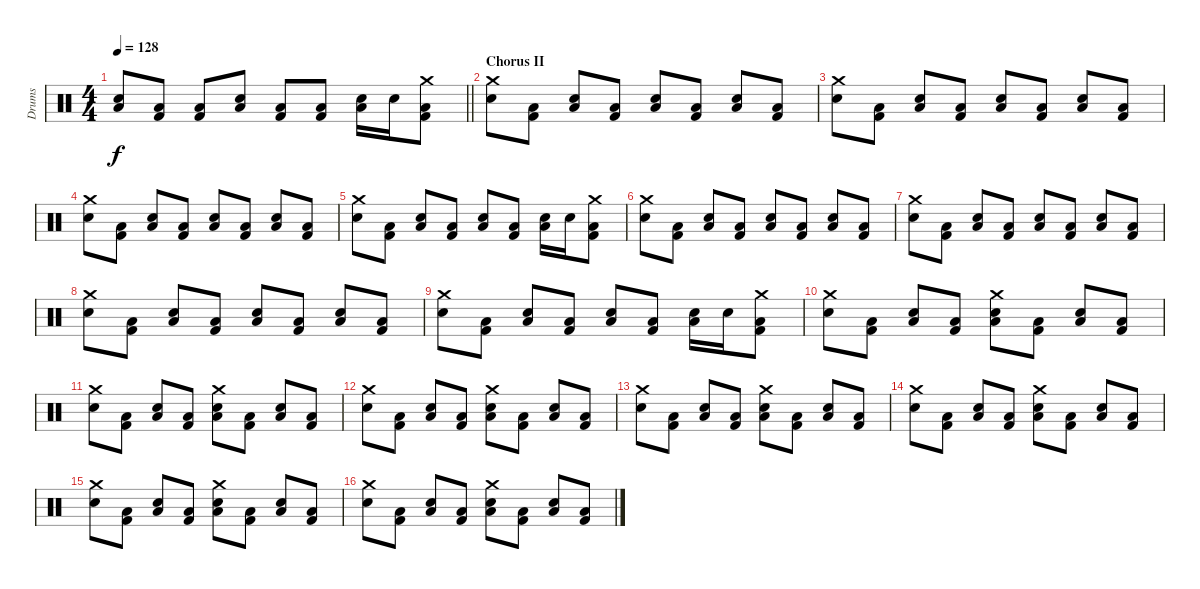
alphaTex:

\track ("Drums" "Drums") {instrument percussion}
\staff {score}
\articulation defaults
\ts (4 4)
\tempo 128
\clef neutral
\barLineRight lightlight
\ks c
("Snare (hit) 2" "Low Floor Tom (hit)").8{dy f} ("Low Floor Tom (hit)" "Kick (hit) 2").8 ("Low Floor Tom (hit)" "Kick (hit) 2").8 ("Snare (hit) 2" "Low Floor Tom (hit)").8 ("Low Floor Tom (hit)" "Kick (hit) 2").8 ("Low Floor Tom (hit)" "Kick (hit) 2").8 ("Snare (hit) 2" "Low Floor Tom (hit)").16 "Snare (hit) 2".16 ("Crash medium (hit)" "Low Floor Tom (hit)" "Kick (hit) 2").8 |
\section ("" "Chorus II")
("Crash medium (hit)" "Snare (hit) 2").8 ("Low Floor Tom (hit)" "Kick (hit) 2").8 ("Snare (hit) 2" "Low Floor Tom (hit)").8 ("Low Floor Tom (hit)" "Kick (hit) 2").8 ("Snare (hit) 2" "Low Floor Tom (hit)").8 ("Low Floor Tom (hit)" "Kick (hit) 2").8 ("Snare (hit) 2" "Low Floor Tom (hit)").8 ("Low Floor Tom (hit)" "Kick (hit) 2").8 |
("Crash medium (hit)" "Snare (hit) 2").8 ("Low Floor Tom (hit)" "Kick (hit) 2").8 ("Snare (hit) 2" "Low Floor Tom (hit)").8 ("Low Floor Tom (hit)" "Kick (hit) 2").8 ("Snare (hit) 2" "Low Floor Tom (hit)").8 ("Low Floor Tom (hit)" "Kick (hit) 2").8 ("Snare (hit) 2" "Low Floor Tom (hit)").8 ("Low Floor Tom (hit)" "Kick (hit) 2").8 |
("Crash medium (hit)" "Snare (hit) 2").8 ("Low Floor Tom (hit)" "Kick (hit) 2").8 ("Snare (hit) 2" "Low Floor Tom (hit)").8 ("Low Floor Tom (hit)" "Kick (hit) 2").8 ("Snare (hit) 2" "Low Floor Tom (hit)").8 ("Low Floor Tom (hit)" "Kick (hit) 2").8 ("Snare (hit) 2" "Low Floor Tom (hit)").8 ("Low Floor Tom (hit)" "Kick (hit) 2").8 |
("Crash medium (hit)" "Snare (hit) 2").8 ("Low Floor Tom (hit)" "Kick (hit) 2").8 ("Snare (hit) 2" "Low Floor Tom (hit)").8 ("Low Floor Tom (hit)" "Kick (hit) 2").8 ("Snare (hit) 2" "Low Floor Tom (hit)").8 ("Low Floor Tom (hit)" "Kick (hit) 2").8 ("Snare (hit) 2" "Low Floor Tom (hit)").16 "Snare (hit) 2".16 ("Crash medium (hit)" "Low Floor Tom (hit)" "Kick (hit) 2").8 |
("Crash medium (hit)" "Snare (hit) 2").8 ("Low Floor Tom (hit)" "Kick (hit) 2").8 ("Snare (hit) 2" "Low Floor Tom (hit)").8 ("Low Floor Tom (hit)" "Kick (hit) 2").8 ("Snare (hit) 2" "Low Floor Tom (hit)").8 ("Low Floor Tom (hit)" "Kick (hit) 2").8 ("Snare (hit) 2" "Low Floor Tom (hit)").8 ("Low Floor Tom (hit)" "Kick (hit) 2").8 |
("Crash medium (hit)" "Snare (hit) 2").8 ("Low Floor Tom (hit)" "Kick (hit) 2").8 ("Snare (hit) 2" "Low Floor Tom (hit)").8 ("Low Floor Tom (hit)" "Kick (hit) 2").8 ("Snare (hit) 2" "Low Floor Tom (hit)").8 ("Low Floor Tom (hit)" "Kick (hit) 2").8 ("Snare (hit) 2" "Low Floor Tom (hit)").8 ("Low Floor Tom (hit)" "Kick (hit) 2").8 |
("Crash medium (hit)" "Snare (hit) 2").8 ("Low Floor Tom (hit)" "Kick (hit) 2").8 ("Snare (hit) 2" "Low Floor Tom (hit)").8 ("Low Floor Tom (hit)" "Kick (hit) 2").8 ("Snare (hit) 2" "Low Floor Tom (hit)").8 ("Low Floor Tom (hit)" "Kick (hit) 2").8 ("Snare (hit) 2" "Low Floor Tom (hit)").8 ("Low Floor Tom (hit)" "Kick (hit) 2").8 |
("Crash medium (hit)" "Snare (hit) 2").8 ("Low Floor Tom (hit)" "Kick (hit) 2").8 ("Snare (hit) 2" "Low Floor Tom (hit)").8 ("Low Floor Tom (hit)" "Kick (hit) 2").8 ("Snare (hit) 2" "Low Floor Tom (hit)").8 ("Low Floor Tom (hit)" "Kick (hit) 2").8 ("Snare (hit) 2" "Low Floor Tom (hit)").16 "Snare (hit) 2".16 ("Crash medium (hit)" "Low Floor Tom (hit)" "Kick (hit) 2").8 |
("Crash medium (hit)" "Snare (hit) 2").8 ("Low Floor Tom (hit)" "Kick (hit) 2").8 ("Snare (hit) 2" "Low Floor Tom (hit)").8 ("Low Floor Tom (hit)" "Kick (hit) 2").8 ("Crash medium (hit)" "Snare (hit) 2" "Low Floor Tom (hit)").8 ("Low Floor Tom (hit)" "Kick (hit) 2").8 ("Snare (hit) 2" "Low Floor Tom (hit)").8 ("Low Floor Tom (hit)" "Kick (hit) 2").8 |
("Crash medium (hit)" "Snare (hit) 2").8 ("Low Floor Tom (hit)" "Kick (hit) 2").8 ("Snare (hit) 2" "Low Floor Tom (hit)").8 ("Low Floor Tom (hit)" "Kick (hit) 2").8 ("Crash medium (hit)" "Snare (hit) 2" "Low Floor Tom (hit)").8 ("Low Floor Tom (hit)" "Kick (hit) 2").8 ("Snare (hit) 2" "Low Floor Tom (hit)").8 ("Low Floor Tom (hit)" "Kick (hit) 2").8 |
("Crash medium (hit)" "Snare (hit) 2").8 ("Low Floor Tom (hit)" "Kick (hit) 2").8 ("Snare (hit) 2" "Low Floor Tom (hit)").8 ("Low Floor Tom (hit)" "Kick (hit) 2").8 ("Crash medium (hit)" "Snare (hit) 2" "Low Floor Tom (hit)").8 ("Low Floor Tom (hit)" "Kick (hit) 2").8 ("Snare (hit) 2" "Low Floor Tom (hit)").8 ("Low Floor Tom (hit)" "Kick (hit) 2").8 |
("Crash medium (hit)" "Snare (hit) 2").8 ("Low Floor Tom (hit)" "Kick (hit) 2").8 ("Snare (hit) 2" "Low Floor Tom (hit)").8 ("Low Floor Tom (hit)" "Kick (hit) 2").8 ("Crash medium (hit)" "Snare (hit) 2" "Low Floor Tom (hit)").8 ("Low Floor Tom (hit)" "Kick (hit) 2").8 ("Snare (hit) 2" "Low Floor Tom (hit)").8 ("Low Floor Tom (hit)" "Kick (hit) 2").8 |
("Crash medium (hit)" "Snare (hit) 2").8 ("Low Floor Tom (hit)" "Kick (hit) 2").8 ("Snare (hit) 2" "Low Floor Tom (hit)").8 ("Low Floor Tom (hit)" "Kick (hit) 2").8 ("Crash medium (hit)" "Snare (hit) 2" "Low Floor Tom (hit)").8 ("Low Floor Tom (hit)" "Kick (hit) 2").8 ("Snare (hit) 2" "Low Floor Tom (hit)").8 ("Low Floor Tom (hit)" "Kick (hit) 2").8 |
("Crash medium (hit)" "Snare (hit) 2").8 ("Low Floor Tom (hit)" "Kick (hit) 2").8 ("Snare (hit) 2" "Low Floor Tom (hit)").8 ("Low Floor Tom (hit)" "Kick (hit) 2").8 ("Crash medium (hit)" "Snare (hit) 2" "Low Floor Tom (hit)").8 ("Low Floor Tom (hit)" "Kick (hit) 2").8 ("Snare (hit) 2" "Low Floor Tom (hit)").8 ("Low Floor Tom (hit)" "Kick (hit) 2").8 |
("Crash medium (hit)" "Snare (hit) 2").8 ("Low Floor Tom (hit)" "Kick (hit) 2").8 ("Snare (hit) 2" "Low Floor Tom (hit)").8 ("Low Floor Tom (hit)" "Kick (hit) 2").8 ("Crash medium (hit)" "Snare (hit) 2" "Low Floor Tom (hit)").8 ("Low Floor Tom (hit)" "Kick (hit) 2").8 ("Snare (hit) 2" "Low Floor Tom (hit)").8 ("Low Floor Tom (hit)" "Kick (hit) 2").8
